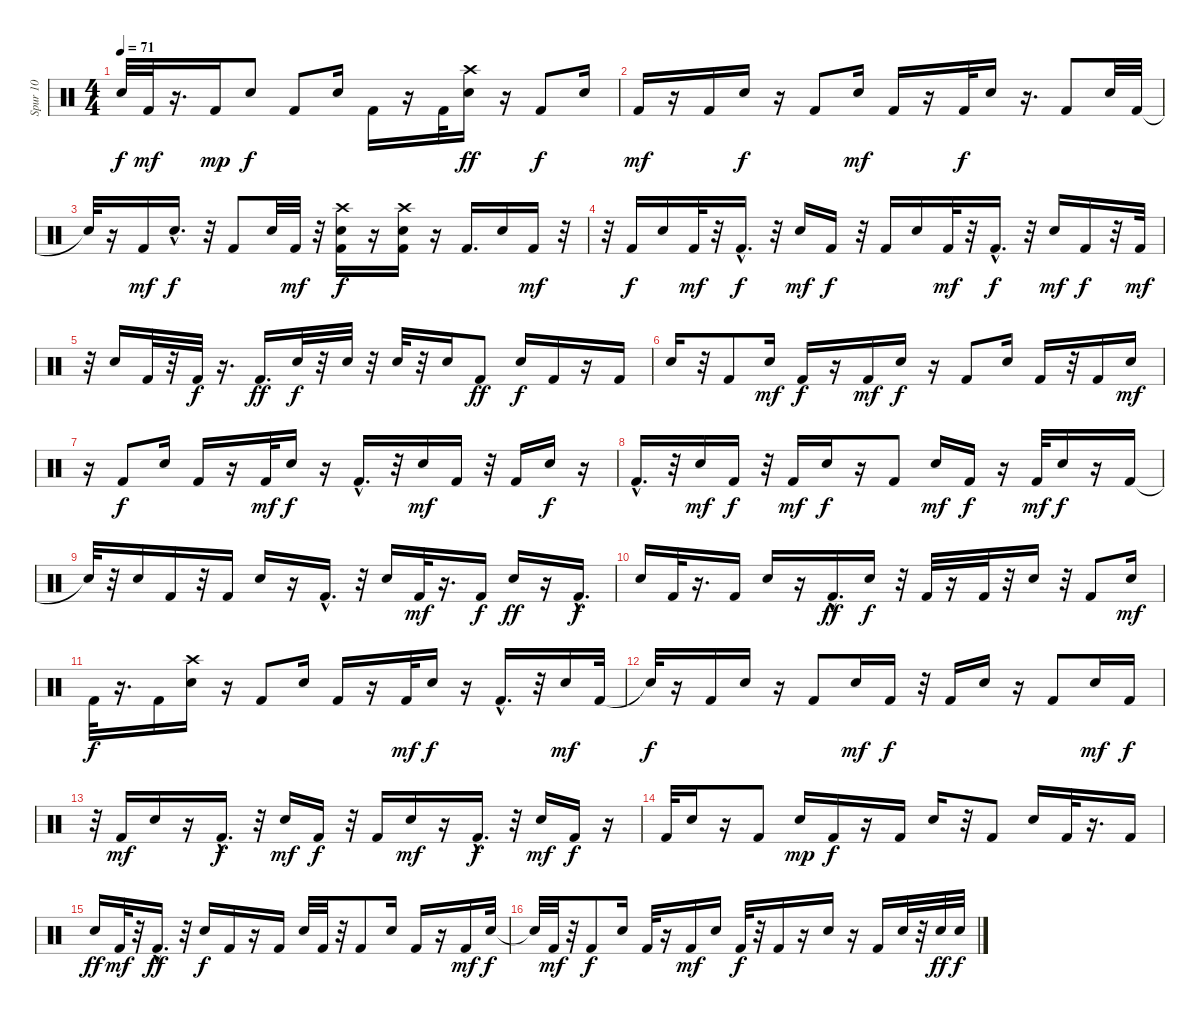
\track ("Spur 10" "Spur 10") {instrument percussion}
\staff {score}
\articulation defaults
\ts (4 4)
\tempo 71
\clef neutral
\ks c "Snare (hit)"{t}.32{dy f} "Kick (hit) 2".32{dy mf}
r.16{d} "Kick (hit) 2".16{dy mp} "Snare (hit) 2".8{dy f} "Kick (hit) 2".8 "Snare (hit) 2".16 "Kick (hit) 2".16 r.16 "Kick (hit) 2".32 ("Snare (hit) 2" "Crash high (hit)").16{dy ff} r.16 "Kick (hit) 2".8{dy f} "Snare (hit) 2".16 |
"Kick (hit) 2".16{dy mf} r.16 "Kick (hit) 2".16 "Snare (hit) 2".16{dy f} r.16 "Kick (hit) 2".8 "Snare (hit) 2".16{dy mf} "Kick (hit) 2".16 r.16 "Kick (hit) 2".32{dy f} "Snare (hit) 2".16 r.16{d} "Kick (hit) 2".8 "Snare (hit) 2".32 "Kick (hit) 2".32 |
"Snare (hit)"{t}.32 r.16 "Kick (hit) 2".16{dy mf} "Snare (hit) 2"{hac}.16{d dy f} r.32 "Kick (hit) 2".8 "Snare (hit) 2".32 "Kick (hit) 2".32{dy mf} r.32 ("Crash high (hit)" "Kick (hit) 2" "Snare (hit) 2").16{dy f} r.16 ("Kick (hit) 2" "Snare (hit) 2" "Crash high (hit)").16 r.16 "Kick (hit) 2".16{d} "Snare (hit) 2".16 "Kick (hit) 2".16{dy mf} r.32 |
r.32 "Kick (hit) 2".16{dy f} "Snare (hit) 2".16 "Kick (hit) 2".32{dy mf} r.32 "Kick (hit) 2"{hac}.16{d dy f} r.32 "Snare (hit) 2".16{dy mf} "Kick (hit) 2".16{dy f} r.32 "Kick (hit) 2".16 "Snare (hit) 2".16 "Kick (hit) 2".32{dy mf} r.32 "Kick (hit) 2"{hac}.16{d dy f} r.32 "Snare (hit) 2".16{dy mf} "Kick (hit) 2".16{dy f} r.32 "Kick (hit) 2".32{dy mf} |
r.32 "Snare (hit) 2".16 "Kick (hit) 2".32 r.32 "Kick (hit) 2".32{dy f} r.16{d} "Kick (hit) 2".16{d dy ff} "Snare (hit) 2".32{dy f} r.32 "Snare (hit) 2".32 r.32 "Snare (hit) 2".32 r.32 "Snare (hit) 2".16 "Kick (hit) 2".8{dy ff} "Snare (hit) 2".16{dy f} "Kick (hit) 2".16 r.16 "Kick (hit) 2".16 |
"Snare (hit) 2".16 r.32 "Kick (hit) 2".8 "Snare (hit) 2".16{dy mf} "Kick (hit) 2".16{dy f} r.16 "Kick (hit) 2".16{dy mf} "Snare (hit) 2".16{dy f} r.16 "Kick (hit) 2".8 "Snare (hit) 2".16 "Kick (hit) 2".16 r.32 "Kick (hit) 2".16 "Snare (hit) 2".16{dy mf} |
r.16 "Kick (hit) 2".8{dy f} "Snare (hit) 2".16 "Kick (hit) 2".16 r.16 "Kick (hit) 2".32{dy mf} "Snare (hit) 2".16{dy f} r.16 "Kick (hit) 2"{hac}.16{d} r.32 "Snare (hit) 2".16{dy mf} "Kick (hit) 2".16 r.32 "Kick (hit) 2".16 "Snare (hit) 2".16{dy f} r.16 |
"Kick (hit) 2"{hac}.16{d} r.32 "Snare (hit) 2".16{dy mf} "Kick (hit) 2".16{dy f} r.32 "Kick (hit) 2".16{dy mf} "Snare (hit) 2".16{dy f} r.16 "Kick (hit) 2".8 "Snare (hit) 2".16{dy mf} "Kick (hit) 2".16{dy f} r.16 "Kick (hit) 2".32{dy mf} "Snare (hit) 2".16{dy f} r.16 "Kick (hit) 2".16 |
"Snare (hit)"{t}.32 r.32 "Snare (hit) 2".16 "Kick (hit) 2".16 r.32 "Kick (hit) 2".16 "Snare (hit) 2".16 r.16 "Kick (hit) 2"{hac}.16{d} r.32 "Snare (hit) 2".16 "Kick (hit) 2".32{dy mf} r.16{d} "Kick (hit) 2".16{dy f} "Snare (hit) 2".16{dy ff} r.16 "Kick (hit) 2"{hac}.16{d dy f} |
"Snare (hit) 2".16 "Kick (hit) 2".32 r.16{d} "Kick (hit) 2".16 "Snare (hit) 2".16 r.16 "Kick (hit) 2"{hac}.16{d dy ff} "Snare (hit) 2".16{dy f} r.32 "Kick (hit) 2".32 r.16 "Kick (hit) 2".32 r.32 "Snare (hit) 2".16 r.32 "Kick (hit) 2".8 "Snare (hit) 2".16{dy mf} |
"Kick (hit) 2".32{dy f} r.16{d} "Kick (hit) 2".16 ("Snare (hit) 2" "Crash high (hit)").16 r.16 "Kick (hit) 2".8 "Snare (hit) 2".16 "Kick (hit) 2".16 r.16 "Kick (hit) 2".32{dy mf} "Snare (hit) 2".16{dy f} r.16 "Kick (hit) 2"{hac}.16{d} r.32 "Snare (hit) 2".16{dy mf} "Kick (hit) 2".32 |
"Snare (hit)"{t}.32{dy f} r.16 "Kick (hit) 2".16 "Snare (hit) 2".16 r.16 "Kick (hit) 2".8 "Snare (hit) 2".16{dy mf} "Kick (hit) 2".16{dy f} r.32 "Kick (hit) 2".16 "Snare (hit) 2".16 r.16 "Kick (hit) 2".8 "Snare (hit) 2".16{dy mf} "Kick (hit) 2".16{dy f} |
r.32 "Kick (hit) 2".16{dy mf} "Snare (hit) 2".16 r.16 "Kick (hit) 2"{hac}.16{d dy f} r.32 "Snare (hit) 2".16{dy mf} "Kick (hit) 2".16{dy f} r.32 "Kick (hit) 2".16 "Snare (hit) 2".16{dy mf} r.16 "Kick (hit) 2"{hac}.16{d dy f} r.32 "Snare (hit) 2".16{dy mf} "Kick (hit) 2".16{dy f} r.16 |
"Kick (hit) 2".32 "Snare (hit) 2".16 r.16 "Kick (hit) 2".8 "Snare (hit) 2".16{dy mp} "Kick (hit) 2".16{dy f} r.16 "Kick (hit) 2".16 "Snare (hit) 2".16 r.32 "Kick (hit) 2".8 "Snare (hit) 2".16 "Kick (hit) 2".32 r.16{d} "Kick (hit) 2".16 |
"Snare (hit) 2".16{dy ff} "Kick (hit) 2".32{dy mf} r.32 "Kick (hit) 2"{hac}.16{d dy ff} r.32 "Snare (hit) 2".16{dy f} "Kick (hit) 2".16 r.16 "Kick (hit) 2".16 "Snare (hit) 2".32 "Kick (hit) 2".32 r.32 "Kick (hit) 2".8 "Snare (hit) 2".16 "Kick (hit) 2".16 r.16 "Kick (hit) 2".16{dy mf} "Snare (hit) 2".32{dy f} |
"Snare (hit)"{t}.32 "Kick (hit) 2".32{dy mf} r.32 "Kick (hit) 2".8{dy f} "Snare (hit) 2".16 "Kick (hit) 2".32 r.16 "Kick (hit) 2".16{dy mf} "Snare (hit) 2".16 "Kick (hit) 2".32{dy f} r.32 "Kick (hit) 2".16 r.16 "Snare (hit) 2".16 r.16 "Kick (hit) 2".16 "Snare (hit) 2".32 r.32 "Snare (hit) 2".32{dy ff} "Snare (hit) 2".32{dy f}
